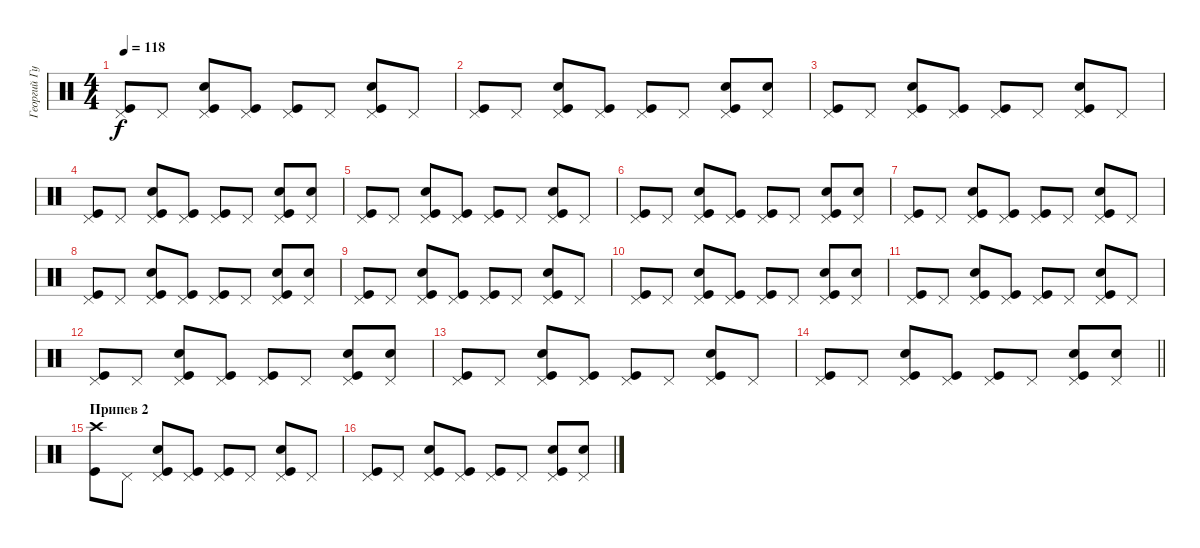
\track ("Георгий Гурьянов" "Георгий Гу") {instrument percussion}
\staff {score}
\articulation defaults
\ts (4 4)
\tempo 118
\clef neutral
\ks c
("Pedal Hi-Hat (hit)" "Kick (hit)").8{dy f} "Pedal Hi-Hat (hit)".8 ("Pedal Hi-Hat (hit)" "Kick (hit)" "Snare (hit) 2").8 ("Pedal Hi-Hat (hit)" "Kick (hit)").8 ("Pedal Hi-Hat (hit)" "Kick (hit)").8 "Pedal Hi-Hat (hit)".8 ("Pedal Hi-Hat (hit)" "Kick (hit)" "Snare (hit) 2").8 "Pedal Hi-Hat (hit)".8 |
("Pedal Hi-Hat (hit)" "Kick (hit)").8 "Pedal Hi-Hat (hit)".8 ("Pedal Hi-Hat (hit)" "Kick (hit)" "Snare (hit) 2").8 ("Pedal Hi-Hat (hit)" "Kick (hit)").8 ("Pedal Hi-Hat (hit)" "Kick (hit)").8 "Pedal Hi-Hat (hit)".8 ("Pedal Hi-Hat (hit)" "Kick (hit)" "Snare (hit) 2").8 ("Pedal Hi-Hat (hit)" "Snare (hit) 2").8 |
("Pedal Hi-Hat (hit)" "Kick (hit)").8 "Pedal Hi-Hat (hit)".8 ("Pedal Hi-Hat (hit)" "Kick (hit)" "Snare (hit) 2").8 ("Pedal Hi-Hat (hit)" "Kick (hit)").8 ("Pedal Hi-Hat (hit)" "Kick (hit)").8 "Pedal Hi-Hat (hit)".8 ("Pedal Hi-Hat (hit)" "Kick (hit)" "Snare (hit) 2").8 "Pedal Hi-Hat (hit)".8 |
("Pedal Hi-Hat (hit)" "Kick (hit)").8 "Pedal Hi-Hat (hit)".8 ("Pedal Hi-Hat (hit)" "Kick (hit)" "Snare (hit) 2").8 ("Pedal Hi-Hat (hit)" "Kick (hit)").8 ("Pedal Hi-Hat (hit)" "Kick (hit)").8 "Pedal Hi-Hat (hit)".8 ("Pedal Hi-Hat (hit)" "Kick (hit)" "Snare (hit) 2").8 ("Pedal Hi-Hat (hit)" "Snare (hit) 2").8 |
("Pedal Hi-Hat (hit)" "Kick (hit)").8 "Pedal Hi-Hat (hit)".8 ("Pedal Hi-Hat (hit)" "Kick (hit)" "Snare (hit) 2").8 ("Pedal Hi-Hat (hit)" "Kick (hit)").8 ("Pedal Hi-Hat (hit)" "Kick (hit)").8 "Pedal Hi-Hat (hit)".8 ("Pedal Hi-Hat (hit)" "Kick (hit)" "Snare (hit) 2").8 "Pedal Hi-Hat (hit)".8 |
("Pedal Hi-Hat (hit)" "Kick (hit)").8 "Pedal Hi-Hat (hit)".8 ("Pedal Hi-Hat (hit)" "Kick (hit)" "Snare (hit) 2").8 ("Pedal Hi-Hat (hit)" "Kick (hit)").8 ("Pedal Hi-Hat (hit)" "Kick (hit)").8 "Pedal Hi-Hat (hit)".8 ("Pedal Hi-Hat (hit)" "Kick (hit)" "Snare (hit) 2").8 ("Pedal Hi-Hat (hit)" "Snare (hit) 2").8 |
("Pedal Hi-Hat (hit)" "Kick (hit)").8 "Pedal Hi-Hat (hit)".8 ("Pedal Hi-Hat (hit)" "Kick (hit)" "Snare (hit) 2").8 ("Pedal Hi-Hat (hit)" "Kick (hit)").8 ("Pedal Hi-Hat (hit)" "Kick (hit)").8 "Pedal Hi-Hat (hit)".8 ("Pedal Hi-Hat (hit)" "Kick (hit)" "Snare (hit) 2").8 "Pedal Hi-Hat (hit)".8 |
("Pedal Hi-Hat (hit)" "Kick (hit)").8 "Pedal Hi-Hat (hit)".8 ("Pedal Hi-Hat (hit)" "Kick (hit)" "Snare (hit) 2").8 ("Pedal Hi-Hat (hit)" "Kick (hit)").8 ("Pedal Hi-Hat (hit)" "Kick (hit)").8 "Pedal Hi-Hat (hit)".8 ("Pedal Hi-Hat (hit)" "Kick (hit)" "Snare (hit) 2").8 ("Pedal Hi-Hat (hit)" "Snare (hit) 2").8 |
("Pedal Hi-Hat (hit)" "Kick (hit)").8 "Pedal Hi-Hat (hit)".8 ("Pedal Hi-Hat (hit)" "Kick (hit)" "Snare (hit) 2").8 ("Pedal Hi-Hat (hit)" "Kick (hit)").8 ("Pedal Hi-Hat (hit)" "Kick (hit)").8 "Pedal Hi-Hat (hit)".8 ("Pedal Hi-Hat (hit)" "Kick (hit)" "Snare (hit) 2").8 "Pedal Hi-Hat (hit)".8 |
("Pedal Hi-Hat (hit)" "Kick (hit)").8 "Pedal Hi-Hat (hit)".8 ("Pedal Hi-Hat (hit)" "Kick (hit)" "Snare (hit) 2").8 ("Pedal Hi-Hat (hit)" "Kick (hit)").8 ("Pedal Hi-Hat (hit)" "Kick (hit)").8 "Pedal Hi-Hat (hit)".8 ("Pedal Hi-Hat (hit)" "Kick (hit)" "Snare (hit) 2").8 ("Pedal Hi-Hat (hit)" "Snare (hit) 2").8 |
("Pedal Hi-Hat (hit)" "Kick (hit)").8 "Pedal Hi-Hat (hit)".8 ("Pedal Hi-Hat (hit)" "Kick (hit)" "Snare (hit) 2").8 ("Pedal Hi-Hat (hit)" "Kick (hit)").8 ("Pedal Hi-Hat (hit)" "Kick (hit)").8 "Pedal Hi-Hat (hit)".8 ("Pedal Hi-Hat (hit)" "Kick (hit)" "Snare (hit) 2").8 "Pedal Hi-Hat (hit)".8 |
("Pedal Hi-Hat (hit)" "Kick (hit)").8 "Pedal Hi-Hat (hit)".8 ("Pedal Hi-Hat (hit)" "Kick (hit)" "Snare (hit) 2").8 ("Pedal Hi-Hat (hit)" "Kick (hit)").8 ("Pedal Hi-Hat (hit)" "Kick (hit)").8 "Pedal Hi-Hat (hit)".8 ("Pedal Hi-Hat (hit)" "Kick (hit)" "Snare (hit) 2").8 ("Pedal Hi-Hat (hit)" "Snare (hit) 2").8 |
("Pedal Hi-Hat (hit)" "Kick (hit)").8 "Pedal Hi-Hat (hit)".8 ("Pedal Hi-Hat (hit)" "Kick (hit)" "Snare (hit) 2").8 ("Pedal Hi-Hat (hit)" "Kick (hit)").8 ("Pedal Hi-Hat (hit)" "Kick (hit)").8 "Pedal Hi-Hat (hit)".8 ("Pedal Hi-Hat (hit)" "Kick (hit)" "Snare (hit) 2").8 "Pedal Hi-Hat (hit)".8 |
\barLineRight lightlight
("Pedal Hi-Hat (hit)" "Kick (hit)").8 "Pedal Hi-Hat (hit)".8 ("Pedal Hi-Hat (hit)" "Kick (hit)" "Snare (hit) 2").8 ("Pedal Hi-Hat (hit)" "Kick (hit)").8 ("Pedal Hi-Hat (hit)" "Kick (hit)").8 "Pedal Hi-Hat (hit)".8 ("Pedal Hi-Hat (hit)" "Kick (hit)" "Snare (hit) 2").8 ("Pedal Hi-Hat (hit)" "Snare (hit) 2").8 |
\section ("" "Припев 2")
("Crash high (hit)" "Kick (hit)").8 "Pedal Hi-Hat (hit)".8 ("Pedal Hi-Hat (hit)" "Kick (hit)" "Snare (hit) 2").8 ("Pedal Hi-Hat (hit)" "Kick (hit)").8 ("Pedal Hi-Hat (hit)" "Kick (hit)").8 "Pedal Hi-Hat (hit)".8 ("Pedal Hi-Hat (hit)" "Kick (hit)" "Snare (hit) 2").8 "Pedal Hi-Hat (hit)".8 |
("Pedal Hi-Hat (hit)" "Kick (hit)").8 "Pedal Hi-Hat (hit)".8 ("Pedal Hi-Hat (hit)" "Kick (hit)" "Snare (hit) 2").8 ("Pedal Hi-Hat (hit)" "Kick (hit)").8 ("Pedal Hi-Hat (hit)" "Kick (hit)").8 "Pedal Hi-Hat (hit)".8 ("Pedal Hi-Hat (hit)" "Kick (hit)" "Snare (hit) 2").8 ("Pedal Hi-Hat (hit)" "Snare (hit) 2").8
